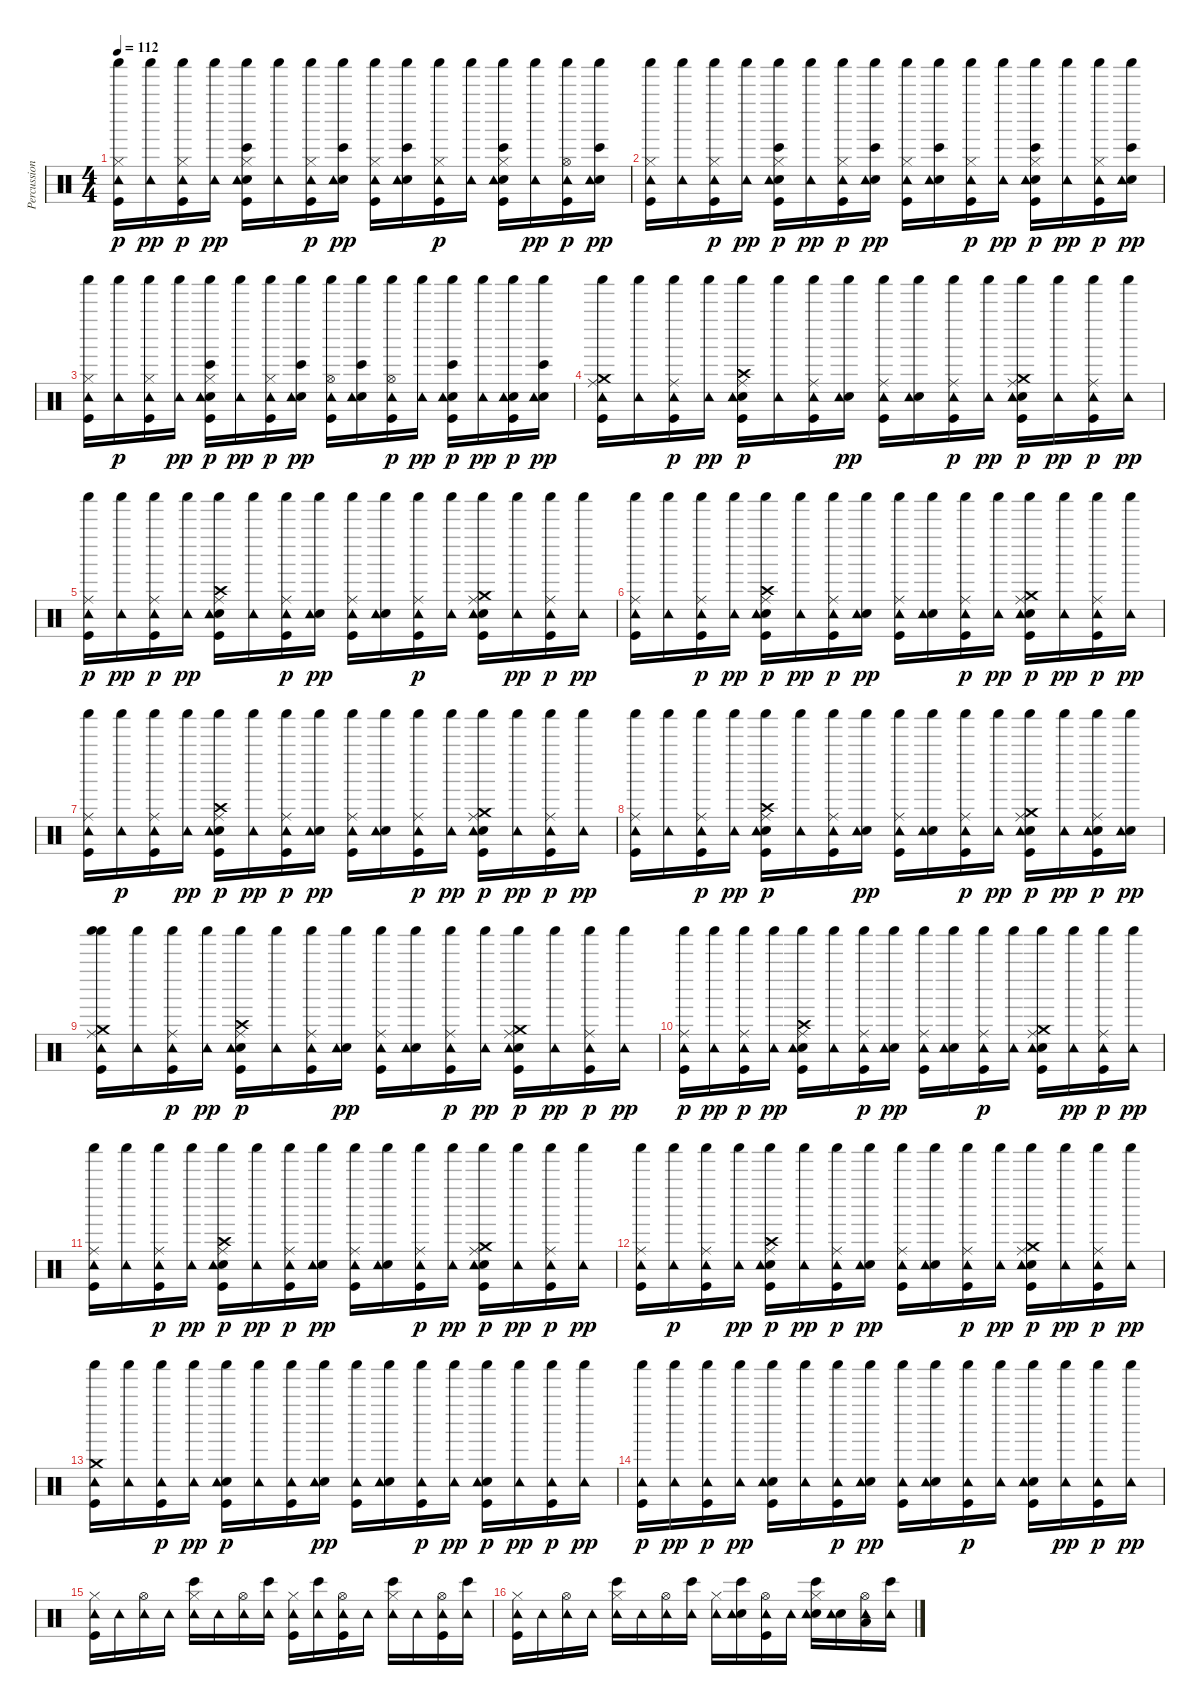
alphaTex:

\track ("Percussioni" "Percussion") {instrument percussion}
\staff {score}
\articulation defaults
\ts (4 4)
\tempo 112
\clef neutral
\ks c
("Shaker (hit)" "Kick (hit)" "Hi-Hat (closed)" "Tambourine (hit)").16{dy p} ("Tambourine (hit)" "Shaker (hit)").16{dy pp} ("Kick (hit)" "Hi-Hat (closed)" "Shaker (hit)" "Tambourine (hit)").16{dy p} ("Tambourine (hit)" "Shaker (hit)").16{dy pp} ("Bongo High (hit)" "Kick (hit)" "Electric Snare (hit)" "Hi-Hat (closed)" "Tambourine (hit)" "Shaker (hit)").16 ("Tambourine (hit)" "Shaker (hit)").16 ("Kick (hit)" "Hi-Hat (closed)" "Shaker (hit)" "Tambourine (hit)").16{dy p} ("Bongo High (hit)" "Electric Snare (hit)" "Tambourine (hit)" "Shaker (hit)").16{dy pp} ("Kick (hit)" "Hi-Hat (closed)" "Tambourine (hit)" "Shaker (hit)").16 ("Bongo High (hit)" "Electric Snare (hit)" "Tambourine (hit)" "Shaker (hit)").16 ("Kick (hit)" "Hi-Hat (closed)" "Shaker (hit)" "Tambourine (hit)").16{dy p} ("Shaker (hit)" "Tambourine (hit)").16 ("Bongo High (hit)" "Kick (hit)" "Electric Snare (hit)" "Hi-Hat (closed)" "Shaker (hit)" "Tambourine (hit)").16 ("Tambourine (hit)" "Shaker (hit)").16{dy pp} ("Kick (hit)" "Hi-Hat (open)" "Shaker (hit)" "Tambourine (hit)").16{dy p} ("Bongo High (hit)" "Electric Snare (hit)" "Tambourine (hit)" "Shaker (hit)").16{dy pp} |
("Kick (hit)" "Hi-Hat (closed)" "Tambourine (hit)" "Shaker (hit)").16 ("Tambourine (hit)" "Shaker (hit)").16 ("Kick (hit)" "Hi-Hat (closed)" "Shaker (hit)" "Tambourine (hit)").16{dy p} ("Tambourine (hit)" "Shaker (hit)").16{dy pp} ("Bongo High (hit)" "Kick (hit)" "Electric Snare (hit)" "Hi-Hat (closed)" "Shaker (hit)" "Tambourine (hit)").16{dy p} ("Tambourine (hit)" "Shaker (hit)").16{dy pp} ("Shaker (hit)" "Kick (hit)" "Hi-Hat (closed)" "Tambourine (hit)").16{dy p} ("Bongo High (hit)" "Electric Snare (hit)" "Tambourine (hit)" "Shaker (hit)").16{dy pp} ("Kick (hit)" "Hi-Hat (closed)" "Tambourine (hit)" "Shaker (hit)").16 ("Bongo High (hit)" "Electric Snare (hit)" "Tambourine (hit)" "Shaker (hit)").16 ("Kick (hit)" "Hi-Hat (closed)" "Shaker (hit)" "Tambourine (hit)").16{dy p} ("Tambourine (hit)" "Shaker (hit)").16{dy pp} ("Bongo High (hit)" "Kick (hit)" "Electric Snare (hit)" "Hi-Hat (closed)" "Shaker (hit)" "Tambourine (hit)").16{dy p} ("Tambourine (hit)" "Shaker (hit)").16{dy pp} ("Kick (hit)" "Hi-Hat (closed)" "Shaker (hit)" "Tambourine (hit)").16{dy p} ("Bongo High (hit)" "Electric Snare (hit)" "Tambourine (hit)" "Shaker (hit)").16{dy pp} |
("Kick (hit)" "Hi-Hat (closed)" "Tambourine (hit)" "Shaker (hit)").16 ("Shaker (hit)" "Tambourine (hit)").16{dy p} ("Kick (hit)" "Hi-Hat (closed)" "Shaker (hit)" "Tambourine (hit)").16 ("Tambourine (hit)" "Shaker (hit)").16{dy pp} ("Bongo High (hit)" "Kick (hit)" "Electric Snare (hit)" "Hi-Hat (closed)" "Shaker (hit)" "Tambourine (hit)").16{dy p} ("Tambourine (hit)" "Shaker (hit)").16{dy pp} ("Kick (hit)" "Hi-Hat (closed)" "Shaker (hit)" "Tambourine (hit)").16{dy p} ("Bongo High (hit)" "Electric Snare (hit)" "Tambourine (hit)" "Shaker (hit)").16{dy pp} ("Kick (hit)" "Hi-Hat (open)" "Tambourine (hit)" "Shaker (hit)").16 ("Bongo High (hit)" "Electric Snare (hit)" "Tambourine (hit)" "Shaker (hit)").16 ("Kick (hit)" "Hi-Hat (open)" "Shaker (hit)" "Tambourine (hit)").16{dy p} ("Tambourine (hit)" "Shaker (hit)").16{dy pp} ("Shaker (hit)" "Bongo High (hit)" "Kick (hit)" "Electric Snare (hit)" "Tambourine (hit)").16{dy p} ("Tambourine (hit)" "Shaker (hit)").16{dy pp} ("Kick (hit)" "Electric Snare (hit)" "Shaker (hit)" "Tambourine (hit)").16{dy p} ("Bongo High (hit)" "Electric Snare (hit)" "Tambourine (hit)" "Shaker (hit)").16{dy pp} |
("Kick (hit)" "Ride (middle)" "Tambourine (hit)" "Crash medium (hit)" "Shaker (hit)").16 ("Tambourine (hit)" "Shaker (hit)").16 ("Kick (hit)" "Ride (middle)" "Shaker (hit)" "Tambourine (hit)").16{dy p} ("Tambourine (hit)" "Shaker (hit)").16{dy pp} ("Kick (hit)" "Electric Snare (hit)" "Crash high (hit)" "Ride (middle)" "Shaker (hit)" "Tambourine (hit)").16{dy p} ("Shaker (hit)" "Tambourine (hit)").16 ("Kick (hit)" "Ride (middle)" "Shaker (hit)" "Tambourine (hit)").16 ("Electric Snare (hit)" "Tambourine (hit)" "Shaker (hit)").16{dy pp} ("Kick (hit)" "Ride (middle)" "Tambourine (hit)" "Shaker (hit)").16 ("Electric Snare (hit)" "Tambourine (hit)" "Shaker (hit)").16 ("Kick (hit)" "Ride (middle)" "Shaker (hit)" "Tambourine (hit)").16{dy p} ("Tambourine (hit)" "Shaker (hit)").16{dy pp} ("Kick (hit)" "Electric Snare (hit)" "Ride (middle)" "Crash medium (hit)" "Shaker (hit)" "Tambourine (hit)").16{dy p} ("Tambourine (hit)" "Shaker (hit)").16{dy pp} ("Kick (hit)" "Ride (middle)" "Shaker (hit)" "Tambourine (hit)").16{dy p} ("Tambourine (hit)" "Shaker (hit)").16{dy pp} |
("Shaker (hit)" "Kick (hit)" "Ride (middle)" "Tambourine (hit)").16{dy p} ("Tambourine (hit)" "Shaker (hit)").16{dy pp} ("Kick (hit)" "Ride (middle)" "Shaker (hit)" "Tambourine (hit)").16{dy p} ("Tambourine (hit)" "Shaker (hit)").16{dy pp} ("Kick (hit)" "Electric Snare (hit)" "Crash high (hit)" "Ride (middle)" "Tambourine (hit)" "Shaker (hit)").16 ("Tambourine (hit)" "Shaker (hit)").16 ("Kick (hit)" "Ride (middle)" "Shaker (hit)" "Tambourine (hit)").16{dy p} ("Electric Snare (hit)" "Tambourine (hit)" "Shaker (hit)").16{dy pp} ("Kick (hit)" "Ride (middle)" "Tambourine (hit)" "Shaker (hit)").16 ("Electric Snare (hit)" "Tambourine (hit)" "Shaker (hit)").16 ("Kick (hit)" "Ride (middle)" "Shaker (hit)" "Tambourine (hit)").16{dy p} ("Shaker (hit)" "Tambourine (hit)").16 ("Kick (hit)" "Electric Snare (hit)" "Ride (middle)" "Crash medium (hit)" "Shaker (hit)" "Tambourine (hit)").16 ("Tambourine (hit)" "Shaker (hit)").16{dy pp} ("Kick (hit)" "Ride (middle)" "Shaker (hit)" "Tambourine (hit)").16{dy p} ("Tambourine (hit)" "Shaker (hit)").16{dy pp} |
("Kick (hit)" "Ride (middle)" "Tambourine (hit)" "Shaker (hit)").16 ("Tambourine (hit)" "Shaker (hit)").16 ("Kick (hit)" "Ride (middle)" "Shaker (hit)" "Tambourine (hit)").16{dy p} ("Tambourine (hit)" "Shaker (hit)").16{dy pp} ("Kick (hit)" "Electric Snare (hit)" "Crash high (hit)" "Ride (middle)" "Shaker (hit)" "Tambourine (hit)").16{dy p} ("Tambourine (hit)" "Shaker (hit)").16{dy pp} ("Shaker (hit)" "Kick (hit)" "Ride (middle)" "Tambourine (hit)").16{dy p} ("Electric Snare (hit)" "Tambourine (hit)" "Shaker (hit)").16{dy pp} ("Kick (hit)" "Ride (middle)" "Tambourine (hit)" "Shaker (hit)").16 ("Electric Snare (hit)" "Tambourine (hit)" "Shaker (hit)").16 ("Kick (hit)" "Ride (middle)" "Shaker (hit)" "Tambourine (hit)").16{dy p} ("Tambourine (hit)" "Shaker (hit)").16{dy pp} ("Kick (hit)" "Electric Snare (hit)" "Ride (middle)" "Crash medium (hit)" "Shaker (hit)" "Tambourine (hit)").16{dy p} ("Tambourine (hit)" "Shaker (hit)").16{dy pp} ("Kick (hit)" "Ride (middle)" "Shaker (hit)" "Tambourine (hit)").16{dy p} ("Tambourine (hit)" "Shaker (hit)").16{dy pp} |
("Kick (hit)" "Ride (middle)" "Tambourine (hit)" "Shaker (hit)").16 ("Shaker (hit)" "Tambourine (hit)").16{dy p} ("Kick (hit)" "Ride (middle)" "Shaker (hit)" "Tambourine (hit)").16 ("Tambourine (hit)" "Shaker (hit)").16{dy pp} ("Kick (hit)" "Electric Snare (hit)" "Crash high (hit)" "Ride (middle)" "Shaker (hit)" "Tambourine (hit)").16{dy p} ("Tambourine (hit)" "Shaker (hit)").16{dy pp} ("Kick (hit)" "Ride (middle)" "Shaker (hit)" "Tambourine (hit)").16{dy p} ("Electric Snare (hit)" "Tambourine (hit)" "Shaker (hit)").16{dy pp} ("Kick (hit)" "Ride (middle)" "Tambourine (hit)" "Shaker (hit)").16 ("Electric Snare (hit)" "Tambourine (hit)" "Shaker (hit)").16 ("Kick (hit)" "Ride (middle)" "Shaker (hit)" "Tambourine (hit)").16{dy p} ("Tambourine (hit)" "Shaker (hit)").16{dy pp} ("Shaker (hit)" "Kick (hit)" "Electric Snare (hit)" "Ride (middle)" "Crash medium (hit)" "Tambourine (hit)").16{dy p} ("Tambourine (hit)" "Shaker (hit)").16{dy pp} ("Kick (hit)" "Ride (middle)" "Shaker (hit)" "Tambourine (hit)").16{dy p} ("Tambourine (hit)" "Shaker (hit)").16{dy pp} |
("Kick (hit)" "Ride (middle)" "Tambourine (hit)" "Shaker (hit)").16 ("Tambourine (hit)" "Shaker (hit)").16 ("Kick (hit)" "Ride (middle)" "Shaker (hit)" "Tambourine (hit)").16{dy p} ("Tambourine (hit)" "Shaker (hit)").16{dy pp} ("Kick (hit)" "Electric Snare (hit)" "Crash high (hit)" "Ride (middle)" "Shaker (hit)" "Tambourine (hit)").16{dy p} ("Shaker (hit)" "Tambourine (hit)").16 ("Kick (hit)" "Ride (middle)" "Shaker (hit)" "Tambourine (hit)").16 ("Electric Snare (hit)" "Tambourine (hit)" "Shaker (hit)").16{dy pp} ("Kick (hit)" "Ride (middle)" "Tambourine (hit)" "Shaker (hit)").16 ("Electric Snare (hit)" "Tambourine (hit)" "Shaker (hit)").16 ("Kick (hit)" "Ride (middle)" "Shaker (hit)" "Tambourine (hit)").16{dy p} ("Tambourine (hit)" "Shaker (hit)").16{dy pp} ("Kick (hit)" "Electric Snare (hit)" "Ride (middle)" "Crash medium (hit)" "Shaker (hit)" "Tambourine (hit)").16{dy p} ("Tambourine (hit)" "Shaker (hit)").16{dy pp} ("Kick (hit)" "Electric Snare (hit)" "Ride (middle)" "Shaker (hit)" "Tambourine (hit)").16{dy p} ("Electric Snare (hit)" "Tambourine (hit)" "Shaker (hit)").16{dy pp} |
("Shaker (hit)" "Kick (hit)" "Ride (middle)" "Tambourine (hit)" "Crash medium (hit)" "Shaker (hit)").16 ("Tambourine (hit)" "Shaker (hit)").16 ("Kick (hit)" "Ride (middle)" "Shaker (hit)" "Tambourine (hit)").16{dy p} ("Tambourine (hit)" "Shaker (hit)").16{dy pp} ("Kick (hit)" "Electric Snare (hit)" "Crash high (hit)" "Ride (middle)" "Shaker (hit)" "Tambourine (hit)").16{dy p} ("Shaker (hit)" "Tambourine (hit)").16 ("Kick (hit)" "Ride (middle)" "Shaker (hit)" "Tambourine (hit)").16 ("Electric Snare (hit)" "Tambourine (hit)" "Shaker (hit)").16{dy pp} ("Kick (hit)" "Ride (middle)" "Tambourine (hit)" "Shaker (hit)").16 ("Electric Snare (hit)" "Tambourine (hit)" "Shaker (hit)").16 ("Kick (hit)" "Ride (middle)" "Shaker (hit)" "Tambourine (hit)").16{dy p} ("Tambourine (hit)" "Shaker (hit)").16{dy pp} ("Kick (hit)" "Electric Snare (hit)" "Ride (middle)" "Crash medium (hit)" "Shaker (hit)" "Tambourine (hit)").16{dy p} ("Tambourine (hit)" "Shaker (hit)").16{dy pp} ("Kick (hit)" "Ride (middle)" "Shaker (hit)" "Tambourine (hit)").16{dy p} ("Tambourine (hit)" "Shaker (hit)").16{dy pp} |
("Shaker (hit)" "Kick (hit)" "Ride (middle)" "Tambourine (hit)").16{dy p} ("Tambourine (hit)" "Shaker (hit)").16{dy pp} ("Kick (hit)" "Ride (middle)" "Shaker (hit)" "Tambourine (hit)").16{dy p} ("Tambourine (hit)" "Shaker (hit)").16{dy pp} ("Kick (hit)" "Electric Snare (hit)" "Crash high (hit)" "Ride (middle)" "Tambourine (hit)" "Shaker (hit)").16 ("Tambourine (hit)" "Shaker (hit)").16 ("Kick (hit)" "Ride (middle)" "Shaker (hit)" "Tambourine (hit)").16{dy p} ("Electric Snare (hit)" "Tambourine (hit)" "Shaker (hit)").16{dy pp} ("Kick (hit)" "Ride (middle)" "Tambourine (hit)" "Shaker (hit)").16 ("Electric Snare (hit)" "Tambourine (hit)" "Shaker (hit)").16 ("Kick (hit)" "Ride (middle)" "Shaker (hit)" "Tambourine (hit)").16{dy p} ("Shaker (hit)" "Tambourine (hit)").16 ("Kick (hit)" "Electric Snare (hit)" "Ride (middle)" "Crash medium (hit)" "Shaker (hit)" "Tambourine (hit)").16 ("Tambourine (hit)" "Shaker (hit)").16{dy pp} ("Kick (hit)" "Ride (middle)" "Shaker (hit)" "Tambourine (hit)").16{dy p} ("Tambourine (hit)" "Shaker (hit)").16{dy pp} |
("Kick (hit)" "Ride (middle)" "Tambourine (hit)" "Shaker (hit)").16 ("Tambourine (hit)" "Shaker (hit)").16 ("Kick (hit)" "Ride (middle)" "Shaker (hit)" "Tambourine (hit)").16{dy p} ("Tambourine (hit)" "Shaker (hit)").16{dy pp} ("Kick (hit)" "Electric Snare (hit)" "Crash high (hit)" "Ride (middle)" "Shaker (hit)" "Tambourine (hit)").16{dy p} ("Tambourine (hit)" "Shaker (hit)").16{dy pp} ("Shaker (hit)" "Kick (hit)" "Ride (middle)" "Tambourine (hit)").16{dy p} ("Electric Snare (hit)" "Tambourine (hit)" "Shaker (hit)").16{dy pp} ("Kick (hit)" "Ride (middle)" "Tambourine (hit)" "Shaker (hit)").16 ("Electric Snare (hit)" "Tambourine (hit)" "Shaker (hit)").16 ("Kick (hit)" "Ride (middle)" "Shaker (hit)" "Tambourine (hit)").16{dy p} ("Tambourine (hit)" "Shaker (hit)").16{dy pp} ("Kick (hit)" "Electric Snare (hit)" "Ride (middle)" "Crash medium (hit)" "Shaker (hit)" "Tambourine (hit)").16{dy p} ("Tambourine (hit)" "Shaker (hit)").16{dy pp} ("Kick (hit)" "Ride (middle)" "Shaker (hit)" "Tambourine (hit)").16{dy p} ("Tambourine (hit)" "Shaker (hit)").16{dy pp} |
("Kick (hit)" "Ride (middle)" "Tambourine (hit)" "Shaker (hit)").16 ("Shaker (hit)" "Tambourine (hit)").16{dy p} ("Kick (hit)" "Ride (middle)" "Shaker (hit)" "Tambourine (hit)").16 ("Tambourine (hit)" "Shaker (hit)").16{dy pp} ("Kick (hit)" "Electric Snare (hit)" "Crash high (hit)" "Ride (middle)" "Shaker (hit)" "Tambourine (hit)").16{dy p} ("Tambourine (hit)" "Shaker (hit)").16{dy pp} ("Kick (hit)" "Ride (middle)" "Shaker (hit)" "Tambourine (hit)").16{dy p} ("Electric Snare (hit)" "Tambourine (hit)" "Shaker (hit)").16{dy pp} ("Kick (hit)" "Ride (middle)" "Tambourine (hit)" "Shaker (hit)").16 ("Electric Snare (hit)" "Tambourine (hit)" "Shaker (hit)").16 ("Kick (hit)" "Ride (middle)" "Shaker (hit)" "Tambourine (hit)").16{dy p} ("Tambourine (hit)" "Shaker (hit)").16{dy pp} ("Shaker (hit)" "Kick (hit)" "Electric Snare (hit)" "Ride (middle)" "Crash medium (hit)" "Tambourine (hit)").16{dy p} ("Tambourine (hit)" "Shaker (hit)").16{dy pp} ("Kick (hit)" "Ride (middle)" "Shaker (hit)" "Tambourine (hit)").16{dy p} ("Tambourine (hit)" "Shaker (hit)").16{dy pp} |
("Kick (hit)" "Tambourine (hit)" "Crash medium (hit)" "Shaker (hit)").16 ("Tambourine (hit)" "Shaker (hit)").16 ("Kick (hit)" "Shaker (hit)" "Tambourine (hit)").16{dy p} ("Tambourine (hit)" "Shaker (hit)").16{dy pp} ("Kick (hit)" "Electric Snare (hit)" "Shaker (hit)" "Tambourine (hit)").16{dy p} ("Shaker (hit)" "Tambourine (hit)").16 ("Kick (hit)" "Shaker (hit)" "Tambourine (hit)").16 ("Electric Snare (hit)" "Tambourine (hit)" "Shaker (hit)").16{dy pp} ("Kick (hit)" "Tambourine (hit)" "Shaker (hit)").16 ("Electric Snare (hit)" "Tambourine (hit)" "Shaker (hit)").16 ("Kick (hit)" "Shaker (hit)" "Tambourine (hit)").16{dy p} ("Tambourine (hit)" "Shaker (hit)").16{dy pp} ("Kick (hit)" "Electric Snare (hit)" "Shaker (hit)" "Tambourine (hit)").16{dy p} ("Tambourine (hit)" "Shaker (hit)").16{dy pp} ("Kick (hit)" "Shaker (hit)" "Tambourine (hit)").16{dy p} ("Tambourine (hit)" "Shaker (hit)").16{dy pp} |
("Shaker (hit)" "Kick (hit)" "Tambourine (hit)").16{dy p} ("Tambourine (hit)" "Shaker (hit)").16{dy pp} ("Kick (hit)" "Shaker (hit)" "Tambourine (hit)").16{dy p} ("Tambourine (hit)" "Shaker (hit)").16{dy pp} ("Kick (hit)" "Electric Snare (hit)" "Tambourine (hit)" "Shaker (hit)").16 ("Tambourine (hit)" "Shaker (hit)").16 ("Kick (hit)" "Shaker (hit)" "Tambourine (hit)").16{dy p} ("Electric Snare (hit)" "Tambourine (hit)" "Shaker (hit)").16{dy pp} ("Kick (hit)" "Tambourine (hit)" "Shaker (hit)").16 ("Electric Snare (hit)" "Tambourine (hit)" "Shaker (hit)").16 ("Kick (hit)" "Shaker (hit)" "Tambourine (hit)").16{dy p} ("Shaker (hit)" "Tambourine (hit)").16 ("Kick (hit)" "Electric Snare (hit)" "Shaker (hit)" "Tambourine (hit)").16 ("Tambourine (hit)" "Shaker (hit)").16{dy pp} ("Kick (hit)" "Shaker (hit)" "Tambourine (hit)").16{dy p} ("Tambourine (hit)" "Shaker (hit)").16{dy pp} |
("Kick (hit)" "Hi-Hat (closed)" "Tambourine (hit)").16 "Tambourine (hit)".16 ("Hi-Hat (open)" "Tambourine (hit)").16 "Tambourine (hit)".16 ("Bongo High (hit)" "Hi-Hat (closed)" "Tambourine (hit)").16 "Tambourine (hit)".16 ("Hi-Hat (open)" "Tambourine (hit)").16 ("Bongo High (hit)" "Tambourine (hit)").16 ("Kick (hit)" "Hi-Hat (closed)" "Tambourine (hit)").16 ("Bongo High (hit)" "Tambourine (hit)").16 ("Kick (hit)" "Hi-Hat (open)" "Tambourine (hit)").16 "Tambourine (hit)".16 ("Bongo High (hit)" "Hi-Hat (closed)" "Tambourine (hit)").16 "Tambourine (hit)".16 ("Kick (hit)" "Hi-Hat (open)" "Tambourine (hit)").16 ("Bongo High (hit)" "Tambourine (hit)").16 |
("Kick (hit)" "Hi-Hat (closed)" "Tambourine (hit)").16 "Tambourine (hit)".16 ("Hi-Hat (open)" "Tambourine (hit)").16 "Tambourine (hit)".16 ("Bongo High (hit)" "Hi-Hat (closed)" "Tambourine (hit)").16 "Tambourine (hit)".16 ("Hi-Hat (open)" "Tambourine (hit)").16 ("Bongo High (hit)" "Tambourine (hit)").16 ("Hi-Hat (closed)" "Tambourine (hit)").16 ("Bongo High (hit)" "Electric Snare (hit)" "Tambourine (hit)").16 ("Kick (hit)" "Hi-Hat (open)" "Tambourine (hit)").16 "Tambourine (hit)".16 ("Bongo High (hit)" "Electric Snare (hit)" "Hi-Hat (closed)" "Tambourine (hit)").16 ("Electric Snare (hit)" "Tambourine (hit)").16 ("Low Tom (hit)" "Hi-Hat (open)" "Tambourine (hit)").16 ("Bongo High (hit)" "Tambourine (hit)").16
